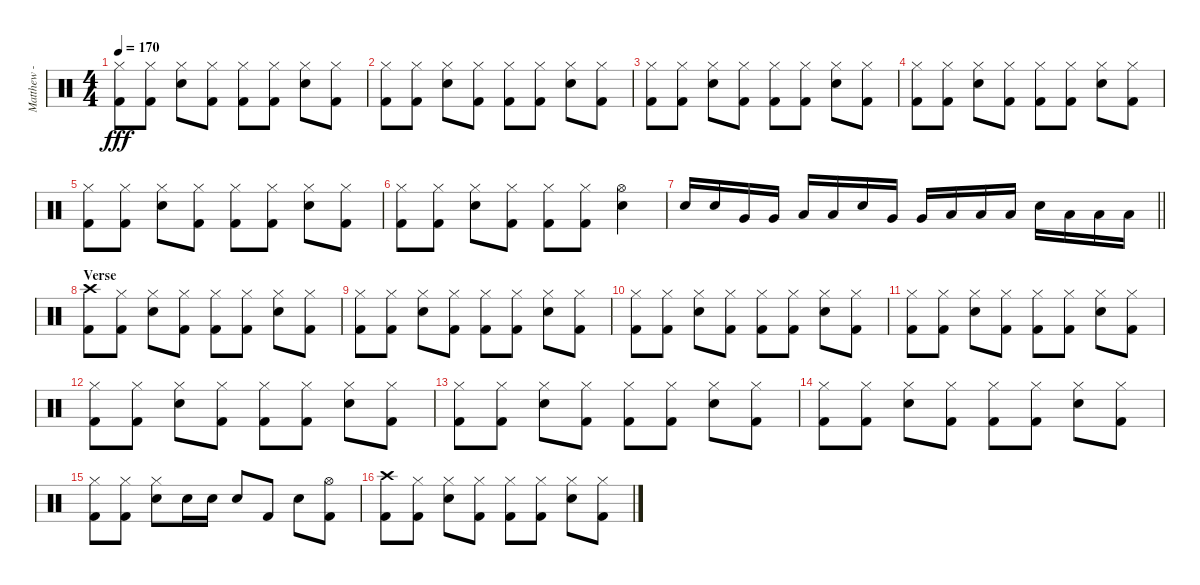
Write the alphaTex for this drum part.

\track ("Matthew - Drums" "Matthew - ") {instrument percussion}
\staff {score}
\articulation defaults
\ts (4 4)
\tempo 170
\clef neutral
\ks c
("Hi-Hat (closed)" "Kick (hit) 2").8{dy fff} ("Hi-Hat (closed)" "Kick (hit) 2").8 ("Hi-Hat (closed)" "Electric Snare (hit)").8 ("Hi-Hat (closed)" "Kick (hit) 2").8 ("Hi-Hat (closed)" "Kick (hit) 2").8 ("Hi-Hat (closed)" "Kick (hit) 2").8 ("Hi-Hat (closed)" "Electric Snare (hit)").8 ("Hi-Hat (closed)" "Kick (hit) 2").8 |
("Hi-Hat (closed)" "Kick (hit) 2").8 ("Hi-Hat (closed)" "Kick (hit) 2").8 ("Hi-Hat (closed)" "Electric Snare (hit)").8 ("Hi-Hat (closed)" "Kick (hit) 2").8 ("Hi-Hat (closed)" "Kick (hit) 2").8 ("Hi-Hat (closed)" "Kick (hit) 2").8 ("Hi-Hat (closed)" "Electric Snare (hit)").8 ("Hi-Hat (closed)" "Kick (hit) 2").8 |
("Hi-Hat (closed)" "Kick (hit) 2").8 ("Hi-Hat (closed)" "Kick (hit) 2").8 ("Hi-Hat (closed)" "Electric Snare (hit)").8 ("Hi-Hat (closed)" "Kick (hit) 2").8 ("Hi-Hat (closed)" "Kick (hit) 2").8 ("Hi-Hat (closed)" "Kick (hit) 2").8 ("Hi-Hat (closed)" "Electric Snare (hit)").8 ("Hi-Hat (closed)" "Kick (hit) 2").8 |
("Hi-Hat (closed)" "Kick (hit) 2").8 ("Hi-Hat (closed)" "Kick (hit) 2").8 ("Hi-Hat (closed)" "Electric Snare (hit)").8 ("Hi-Hat (closed)" "Kick (hit) 2").8 ("Hi-Hat (closed)" "Kick (hit) 2").8 ("Hi-Hat (closed)" "Kick (hit) 2").8 ("Hi-Hat (closed)" "Electric Snare (hit)").8 ("Hi-Hat (closed)" "Kick (hit) 2").8 |
("Hi-Hat (closed)" "Kick (hit) 2").8 ("Hi-Hat (closed)" "Kick (hit) 2").8 ("Hi-Hat (closed)" "Electric Snare (hit)").8 ("Hi-Hat (closed)" "Kick (hit) 2").8 ("Hi-Hat (closed)" "Kick (hit) 2").8 ("Hi-Hat (closed)" "Kick (hit) 2").8 ("Hi-Hat (closed)" "Electric Snare (hit)").8 ("Hi-Hat (closed)" "Kick (hit) 2").8 |
("Hi-Hat (closed)" "Kick (hit) 2").8 ("Hi-Hat (closed)" "Kick (hit) 2").8 ("Hi-Hat (closed)" "Electric Snare (hit)").8 ("Hi-Hat (closed)" "Kick (hit) 2").8 ("Hi-Hat (closed)" "Kick (hit) 2").8 ("Hi-Hat (closed)" "Kick (hit) 2").8 ("Hi-Hat (open)" "Electric Snare (hit)").4 |
\barLineRight lightlight "Electric Snare (hit)".16 "Electric Snare (hit)".16 "Very Low Tom (hit)".16 "Very Low Tom (hit)".16 "Low Floor Tom (hit)".16 "Low Floor Tom (hit)".16 "Electric Snare (hit)".16 "Very Low Tom (hit)".16 "Very Low Tom (hit)".16 "Low Floor Tom (hit)".16 "Low Floor Tom (hit)".16 "Low Floor Tom (hit)".16 "Electric Snare (hit)".16 "Low Floor Tom (hit)".16 "Low Floor Tom (hit)".16 "Low Floor Tom (hit)".16
|
\section ("" "Verse")
("Crash high (hit)" "Kick (hit) 2").8 ("Hi-Hat (closed)" "Kick (hit) 2").8 ("Hi-Hat (closed)" "Electric Snare (hit)").8 ("Hi-Hat (closed)" "Kick (hit) 2").8 ("Hi-Hat (closed)" "Kick (hit) 2").8 ("Hi-Hat (closed)" "Kick (hit) 2").8 ("Hi-Hat (closed)" "Electric Snare (hit)").8 ("Hi-Hat (closed)" "Kick (hit) 2").8 |
("Hi-Hat (closed)" "Kick (hit) 2").8 ("Hi-Hat (closed)" "Kick (hit) 2").8 ("Hi-Hat (closed)" "Electric Snare (hit)").8 ("Hi-Hat (closed)" "Kick (hit) 2").8 ("Hi-Hat (closed)" "Kick (hit) 2").8 ("Hi-Hat (closed)" "Kick (hit) 2").8 ("Hi-Hat (closed)" "Electric Snare (hit)").8 ("Hi-Hat (closed)" "Kick (hit) 2").8 |
("Hi-Hat (closed)" "Kick (hit) 2").8 ("Hi-Hat (closed)" "Kick (hit) 2").8 ("Hi-Hat (closed)" "Electric Snare (hit)").8 ("Hi-Hat (closed)" "Kick (hit) 2").8 ("Hi-Hat (closed)" "Kick (hit) 2").8 ("Hi-Hat (closed)" "Kick (hit) 2").8 ("Hi-Hat (closed)" "Electric Snare (hit)").8 ("Hi-Hat (closed)" "Kick (hit) 2").8 |
("Hi-Hat (closed)" "Kick (hit) 2").8 ("Hi-Hat (closed)" "Kick (hit) 2").8 ("Hi-Hat (closed)" "Electric Snare (hit)").8 ("Hi-Hat (closed)" "Kick (hit) 2").8 ("Hi-Hat (closed)" "Kick (hit) 2").8 ("Hi-Hat (closed)" "Kick (hit) 2").8 ("Hi-Hat (closed)" "Electric Snare (hit)").8 ("Hi-Hat (closed)" "Kick (hit) 2").8 |
("Hi-Hat (closed)" "Kick (hit) 2").8 ("Hi-Hat (closed)" "Kick (hit) 2").8 ("Hi-Hat (closed)" "Electric Snare (hit)").8 ("Hi-Hat (closed)" "Kick (hit) 2").8 ("Hi-Hat (closed)" "Kick (hit) 2").8 ("Hi-Hat (closed)" "Kick (hit) 2").8 ("Hi-Hat (closed)" "Electric Snare (hit)").8 ("Hi-Hat (closed)" "Kick (hit) 2").8 |
("Hi-Hat (closed)" "Kick (hit) 2").8 ("Hi-Hat (closed)" "Kick (hit) 2").8 ("Hi-Hat (closed)" "Electric Snare (hit)").8 ("Hi-Hat (closed)" "Kick (hit) 2").8 ("Hi-Hat (closed)" "Kick (hit) 2").8 ("Hi-Hat (closed)" "Kick (hit) 2").8 ("Hi-Hat (closed)" "Electric Snare (hit)").8 ("Hi-Hat (closed)" "Kick (hit) 2").8 |
("Hi-Hat (closed)" "Kick (hit) 2").8 ("Hi-Hat (closed)" "Kick (hit) 2").8 ("Hi-Hat (closed)" "Electric Snare (hit)").8 ("Hi-Hat (closed)" "Kick (hit) 2").8 ("Hi-Hat (closed)" "Kick (hit) 2").8 ("Hi-Hat (closed)" "Kick (hit) 2").8 ("Hi-Hat (closed)" "Electric Snare (hit)").8 ("Hi-Hat (closed)" "Kick (hit) 2").8 |
("Hi-Hat (closed)" "Kick (hit) 2").8 ("Hi-Hat (closed)" "Kick (hit) 2").8 ("Hi-Hat (closed)" "Electric Snare (hit)").8 "Electric Snare (hit)".16 "Electric Snare (hit)".16 "Electric Snare (hit)".8 "Kick (hit) 2".8 "Electric Snare (hit)".8 ("Hi-Hat (open)" "Kick (hit) 2").8 |
("Crash high (hit)" "Kick (hit) 2").8 ("Hi-Hat (closed)" "Kick (hit) 2").8 ("Hi-Hat (closed)" "Electric Snare (hit)").8 ("Hi-Hat (closed)" "Kick (hit) 2").8 ("Hi-Hat (closed)" "Kick (hit) 2").8 ("Hi-Hat (closed)" "Kick (hit) 2").8 ("Hi-Hat (closed)" "Electric Snare (hit)").8 ("Hi-Hat (closed)" "Kick (hit) 2").8
